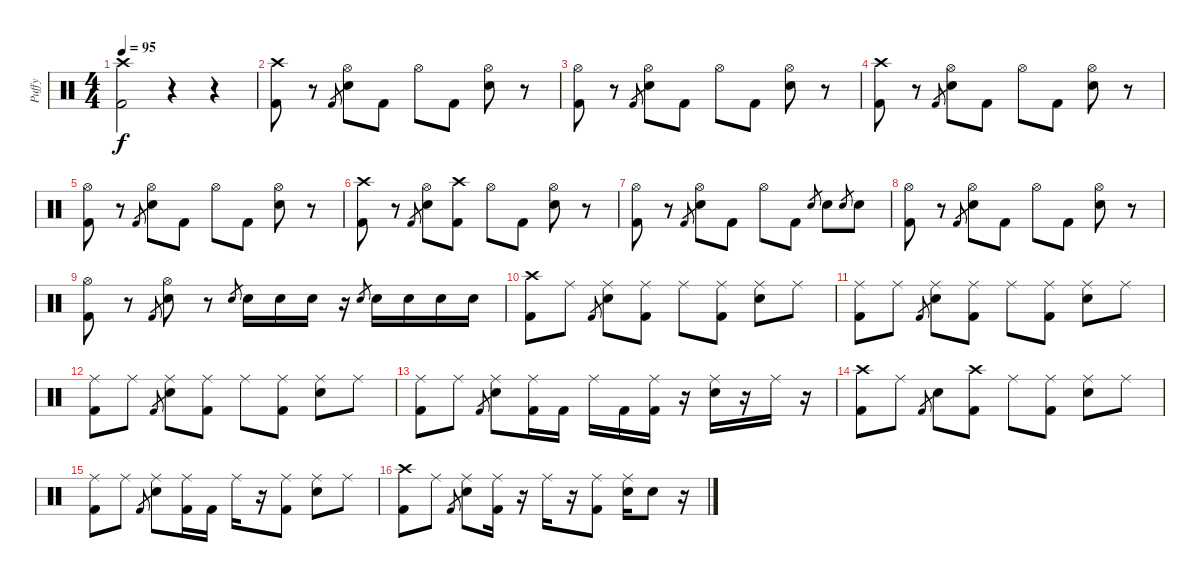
\track ("Puffy" "Puffy") {instrument percussion}
\staff {score}
\articulation defaults
\ts (4 4)
\tempo 95
\clef neutral
\ks c
("Crash high (hit)" "Kick (hit) 2").2{dy f} r.4 r.4 |
("Crash high (hit)" "Kick (hit) 2").8 r.8 "Kick (hit) 2".8{gr} ("Hi-Hat (open)" "Snare (hit) 2").8 "Kick (hit) 2".8 "Hi-Hat (open)".8 "Kick (hit) 2".8 ("Hi-Hat (open)" "Snare (hit) 2").8 r.8 |
("Hi-Hat (open)" "Kick (hit) 2").8 r.8 "Kick (hit) 2".8{gr} ("Hi-Hat (open)" "Snare (hit) 2").8 "Kick (hit) 2".8 "Hi-Hat (open)".8 "Kick (hit) 2".8 ("Hi-Hat (open)" "Snare (hit) 2").8 r.8 |
("Crash high (hit)" "Kick (hit) 2").8 r.8 "Kick (hit) 2".8{gr} ("Hi-Hat (open)" "Snare (hit) 2").8 "Kick (hit) 2".8 "Hi-Hat (open)".8 "Kick (hit) 2".8 ("Hi-Hat (open)" "Snare (hit) 2").8 r.8 |
("Hi-Hat (open)" "Kick (hit) 2").8 r.8 "Kick (hit) 2".8{gr} ("Hi-Hat (open)" "Snare (hit) 2").8 "Kick (hit) 2".8 "Hi-Hat (open)".8 "Kick (hit) 2".8 ("Hi-Hat (open)" "Snare (hit) 2").8 r.8 |
("Crash high (hit)" "Kick (hit) 2").8 r.8 "Kick (hit) 2".8{gr} ("Hi-Hat (open)" "Snare (hit) 2").8 ("Crash high (hit)" "Kick (hit) 2").8 "Hi-Hat (open)".8 "Kick (hit) 2".8 ("Hi-Hat (open)" "Snare (hit) 2").8 r.8 |
("Hi-Hat (open)" "Kick (hit) 2").8 r.8 "Kick (hit) 2".8{gr} ("Hi-Hat (open)" "Snare (hit) 2").8 "Kick (hit) 2".8 "Hi-Hat (open)".8 "Kick (hit) 2".8 "Snare (hit) 2".8{gr} "Snare (hit) 2".8 "Snare (hit) 2".8{gr} "Snare (hit) 2".8 |
("Hi-Hat (open)" "Kick (hit) 2").8 r.8 "Kick (hit) 2".8{gr} ("Hi-Hat (open)" "Snare (hit) 2").8 "Kick (hit) 2".8 "Hi-Hat (open)".8 "Kick (hit) 2".8 ("Hi-Hat (open)" "Snare (hit) 2").8 r.8 |
("Hi-Hat (open)" "Kick (hit) 2").8 r.8 "Kick (hit) 2".8{gr} ("Hi-Hat (open)" "Snare (hit) 2").8 r.8 "Snare (hit) 2".8{gr} "Snare (hit) 2".16 "Snare (hit) 2".16 "Snare (hit) 2".16 r.16 "Snare (hit) 2".8{gr} "Snare (hit) 2".16 "Snare (hit) 2".16 "Snare (hit) 2".16 "Snare (hit) 2".16 |
("Crash high (hit)" "Kick (hit) 2").8 "Ride (middle)".8 "Kick (hit) 2".8{gr} ("Ride (middle)" "Snare (hit) 2").8 ("Ride (middle)" "Kick (hit) 2").8 "Ride (middle)".8 ("Ride (middle)" "Kick (hit) 2").8 ("Ride (middle)" "Snare (hit) 2").8 "Ride (middle)".8 |
("Ride (middle)" "Kick (hit) 2").8 "Ride (middle)".8 "Kick (hit) 2".8{gr} ("Ride (middle)" "Snare (hit) 2").8 ("Ride (middle)" "Kick (hit) 2").8 "Ride (middle)".8 ("Ride (middle)" "Kick (hit) 2").8 ("Ride (middle)" "Snare (hit) 2").8 "Ride (middle)".8 |
("Ride (middle)" "Kick (hit) 2").8 "Ride (middle)".8 "Kick (hit) 2".8{gr} ("Ride (middle)" "Snare (hit) 2").8 ("Ride (middle)" "Kick (hit) 2").8 "Ride (middle)".8 ("Ride (middle)" "Kick (hit) 2").8 ("Ride (middle)" "Snare (hit) 2").8 "Ride (middle)".8 |
("Ride (middle)" "Kick (hit) 2").8 "Ride (middle)".8 "Kick (hit) 2".8{gr} ("Ride (middle)" "Snare (hit) 2").8 ("Ride (middle)" "Kick (hit) 2").16 "Kick (hit) 2".16 "Ride (middle)".16 "Kick (hit) 2".16 ("Ride (middle)" "Kick (hit) 2").16 r.16 ("Ride (middle)" "Snare (hit) 2").16 r.16 "Ride (middle)".16 r.16 |
("Crash high (hit)" "Kick (hit) 2").8 "Ride (middle)".8 "Kick (hit) 2".8{gr} "Snare (hit) 2".8 ("Crash high (hit)" "Kick (hit) 2").8 "Ride (middle)".8 ("Ride (middle)" "Kick (hit) 2").8 ("Ride (middle)" "Snare (hit) 2").8 "Ride (middle)".8 |
("Ride (middle)" "Kick (hit) 2").8 "Ride (middle)".8 "Kick (hit) 2".8{gr} ("Ride (middle)" "Snare (hit) 2").8 ("Ride (middle)" "Kick (hit) 2").16 "Kick (hit) 2".16 "Ride (middle)".16 r.16 ("Ride (middle)" "Kick (hit) 2").8 ("Ride (middle)" "Snare (hit) 2").8 "Ride (middle)".8 |
("Crash high (hit)" "Kick (hit) 2").8 "Ride (middle)".8 "Kick (hit) 2".8{gr} ("Ride (middle)" "Snare (hit) 2").8 ("Ride (middle)" "Kick (hit) 2").16 r.16 "Ride (middle)".16 r.16 ("Ride (middle)" "Kick (hit) 2").8 ("Ride (middle)" "Snare (hit) 2").16 "Snare (hit) 2".8 r.16
